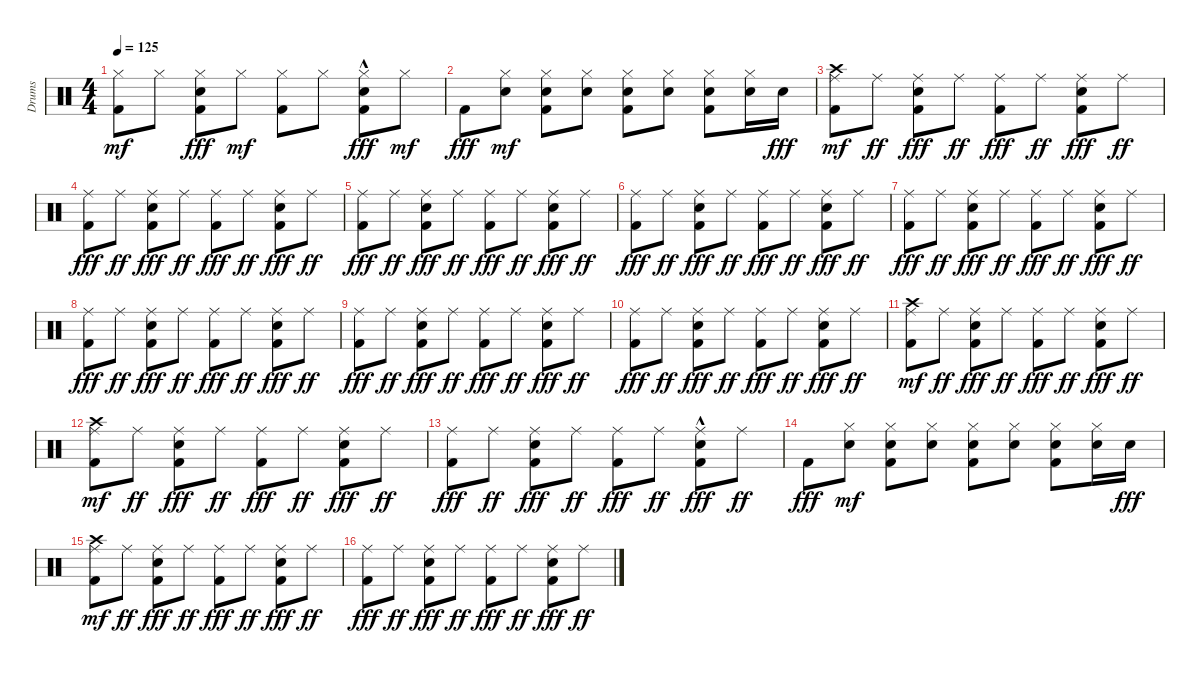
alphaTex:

\track ("Drums" "Drums") {instrument percussion}
\staff {score}
\articulation defaults
\ts (4 4)
\tempo 125
\clef neutral
\ks c
("Kick (hit) 2" "Hi-Hat (closed)").8{dy mf} "Hi-Hat (closed)".8 ("Snare (hit) 2" "Kick (hit) 2" "Hi-Hat (closed)").8{dy fff} "Hi-Hat (closed)".8{dy mf} ("Kick (hit) 2" "Hi-Hat (closed)").8 "Hi-Hat (closed)".8 ("Snare (hit) 2"{hac} "Kick (hit) 2" "Hi-Hat (closed)").8{dy fff} "Hi-Hat (closed)".8{dy mf} |
"Kick (hit) 2".8{dy fff} ("Snare (hit) 2" "Hi-Hat (closed)").8{dy mf} ("Snare (hit) 2" "Kick (hit) 2" "Hi-Hat (closed)").8 ("Snare (hit) 2" "Hi-Hat (closed)").8 ("Snare (hit) 2" "Kick (hit) 2" "Hi-Hat (closed)").8 ("Snare (hit) 2" "Hi-Hat (closed)").8 ("Snare (hit) 2" "Kick (hit) 2" "Hi-Hat (closed)").8 ("Snare (hit) 2" "Hi-Hat (closed)").16 "Snare (hit) 2".16{dy fff} |
("Ride (middle)" "Kick (hit) 2" "Crash high (hit)").8{dy mf} "Ride (middle)".8{dy ff} ("Ride (middle)" "Snare (hit) 2" "Kick (hit) 2").8{dy fff} "Ride (middle)".8{dy ff} ("Ride (middle)" "Kick (hit) 2").8{dy fff} "Ride (middle)".8{dy ff} ("Ride (middle)" "Snare (hit) 2" "Kick (hit) 2").8{dy fff} "Ride (middle)".8{dy ff} |
("Ride (middle)" "Kick (hit) 2").8{dy fff} "Ride (middle)".8{dy ff} ("Ride (middle)" "Snare (hit) 2" "Kick (hit) 2").8{dy fff} "Ride (middle)".8{dy ff} ("Ride (middle)" "Kick (hit) 2").8{dy fff} "Ride (middle)".8{dy ff} ("Ride (middle)" "Snare (hit) 2" "Kick (hit) 2").8{dy fff} "Ride (middle)".8{dy ff} |
("Ride (middle)" "Kick (hit) 2").8{dy fff} "Ride (middle)".8{dy ff} ("Ride (middle)" "Snare (hit) 2" "Kick (hit) 2").8{dy fff} "Ride (middle)".8{dy ff} ("Ride (middle)" "Kick (hit) 2").8{dy fff} "Ride (middle)".8{dy ff} ("Ride (middle)" "Snare (hit) 2" "Kick (hit) 2").8{dy fff} "Ride (middle)".8{dy ff} |
("Ride (middle)" "Kick (hit) 2").8{dy fff} "Ride (middle)".8{dy ff} ("Ride (middle)" "Snare (hit) 2" "Kick (hit) 2").8{dy fff} "Ride (middle)".8{dy ff} ("Ride (middle)" "Kick (hit) 2").8{dy fff} "Ride (middle)".8{dy ff} ("Ride (middle)" "Snare (hit) 2" "Kick (hit) 2").8{dy fff} "Ride (middle)".8{dy ff} |
("Ride (middle)" "Kick (hit) 2").8{dy fff} "Ride (middle)".8{dy ff} ("Ride (middle)" "Snare (hit) 2" "Kick (hit) 2").8{dy fff} "Ride (middle)".8{dy ff} ("Ride (middle)" "Kick (hit) 2").8{dy fff} "Ride (middle)".8{dy ff} ("Ride (middle)" "Snare (hit) 2" "Kick (hit) 2").8{dy fff} "Ride (middle)".8{dy ff} |
("Ride (middle)" "Kick (hit) 2").8{dy fff} "Ride (middle)".8{dy ff} ("Ride (middle)" "Snare (hit) 2" "Kick (hit) 2").8{dy fff} "Ride (middle)".8{dy ff} ("Ride (middle)" "Kick (hit) 2").8{dy fff} "Ride (middle)".8{dy ff} ("Ride (middle)" "Snare (hit) 2" "Kick (hit) 2").8{dy fff} "Ride (middle)".8{dy ff} |
("Ride (middle)" "Kick (hit) 2").8{dy fff} "Ride (middle)".8{dy ff} ("Ride (middle)" "Snare (hit) 2" "Kick (hit) 2").8{dy fff} "Ride (middle)".8{dy ff} ("Ride (middle)" "Kick (hit) 2").8{dy fff} "Ride (middle)".8{dy ff} ("Ride (middle)" "Snare (hit) 2" "Kick (hit) 2").8{dy fff} "Ride (middle)".8{dy ff} |
("Ride (middle)" "Kick (hit) 2").8{dy fff} "Ride (middle)".8{dy ff} ("Ride (middle)" "Snare (hit) 2" "Kick (hit) 2").8{dy fff} "Ride (middle)".8{dy ff} ("Ride (middle)" "Kick (hit) 2").8{dy fff} "Ride (middle)".8{dy ff} ("Ride (middle)" "Snare (hit) 2" "Kick (hit) 2").8{dy fff} "Ride (middle)".8{dy ff} |
("Ride (middle)" "Kick (hit) 2" "Crash high (hit)").8{dy mf} "Ride (middle)".8{dy ff} ("Ride (middle)" "Snare (hit) 2" "Kick (hit) 2").8{dy fff} "Ride (middle)".8{dy ff} ("Ride (middle)" "Kick (hit) 2").8{dy fff} "Ride (middle)".8{dy ff} ("Ride (middle)" "Snare (hit) 2" "Kick (hit) 2").8{dy fff} "Ride (middle)".8{dy ff} |
("Ride (middle)" "Kick (hit) 2" "Crash high (hit)").8{dy mf} "Ride (middle)".8{dy ff} ("Ride (middle)" "Snare (hit) 2" "Kick (hit) 2").8{dy fff} "Ride (middle)".8{dy ff} ("Ride (middle)" "Kick (hit) 2").8{dy fff} "Ride (middle)".8{dy ff} ("Ride (middle)" "Snare (hit) 2" "Kick (hit) 2").8{dy fff} "Ride (middle)".8{dy ff} |
("Ride (middle)" "Kick (hit) 2").8{dy fff} "Ride (middle)".8{dy ff} ("Ride (middle)" "Snare (hit) 2" "Kick (hit) 2").8{dy fff} "Ride (middle)".8{dy ff} ("Ride (middle)" "Kick (hit) 2").8{dy fff} "Ride (middle)".8{dy ff} ("Ride (middle)" "Snare (hit) 2"{hac} "Kick (hit) 2").8{dy fff} "Ride (middle)".8{dy ff} |
"Kick (hit) 2".8{dy fff} ("Snare (hit) 2" "Hi-Hat (closed)").8{dy mf} ("Snare (hit) 2" "Kick (hit) 2" "Hi-Hat (closed)").8 ("Snare (hit) 2" "Hi-Hat (closed)").8 ("Snare (hit) 2" "Kick (hit) 2" "Hi-Hat (closed)").8 ("Snare (hit) 2" "Hi-Hat (closed)").8 ("Snare (hit) 2" "Kick (hit) 2" "Hi-Hat (closed)").8 ("Snare (hit) 2" "Hi-Hat (closed)").16 "Snare (hit) 2".16{dy fff} |
("Ride (middle)" "Kick (hit) 2" "Crash high (hit)").8{dy mf} "Ride (middle)".8{dy ff} ("Ride (middle)" "Snare (hit) 2" "Kick (hit) 2").8{dy fff} "Ride (middle)".8{dy ff} ("Ride (middle)" "Kick (hit) 2").8{dy fff} "Ride (middle)".8{dy ff} ("Ride (middle)" "Snare (hit) 2" "Kick (hit) 2").8{dy fff} "Ride (middle)".8{dy ff} |
("Ride (middle)" "Kick (hit) 2").8{dy fff} "Ride (middle)".8{dy ff} ("Ride (middle)" "Snare (hit) 2" "Kick (hit) 2").8{dy fff} "Ride (middle)".8{dy ff} ("Ride (middle)" "Kick (hit) 2").8{dy fff} "Ride (middle)".8{dy ff} ("Ride (middle)" "Snare (hit) 2" "Kick (hit) 2").8{dy fff} "Ride (middle)".8{dy ff}
